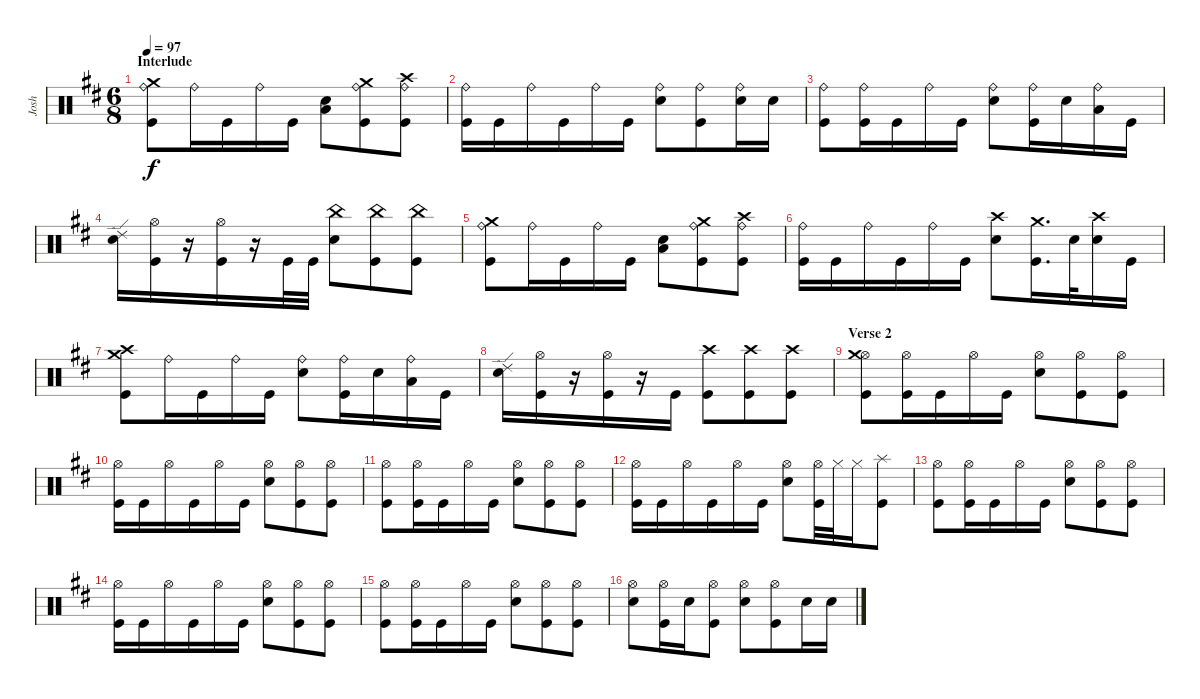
\track ("Josh" "Josh") {instrument percussion}
\staff {score}
\articulation defaults
\ts (6 8)
\section ("" "Interlude")
\tempo 97
\clef neutral
\ks bminor
("Kick (hit)" "Crash medium (hit)" "Ride (bell)").8{dy f} "Ride (bell)".16 "Kick (hit)".16 "Ride (bell)".16 "Kick (hit)".16 ("Snare (hit) 2" "Low Floor Tom (hit)").8 ("Kick (hit)" "Ride (bell)" "Crash medium (hit)").8 ("Kick (hit)" "Ride (bell)" "Crash high (hit)").8 |
("Kick (hit)" "Ride (bell)").16 "Kick (hit)".16 "Ride (bell)".16 "Kick (hit)".16 "Ride (bell)".16 "Kick (hit)".16 ("Snare (hit) 2" "Ride (bell)").8 ("Kick (hit)" "Ride (bell)").8 ("Snare (hit) 2" "Ride (bell)").16 "Snare (hit) 2".16 |
("Kick (hit)" "Ride (bell)").8 ("Kick (hit)" "Ride (bell)").16 "Kick (hit)".16 "Ride (bell)".16 "Kick (hit)".16 ("Snare (hit) 2" "Ride (bell)").8 ("Kick (hit)" "Ride (bell)").16 "Snare (hit) 2".16 ("Ride (bell)" "Low Floor Tom (hit)").16 "Kick (hit)".16 |
("Snare (hit) 2" "Ride (edge) 2").16 ("Kick (hit)" "Hi-Hat (open)").16 r.16 ("Kick (hit)" "Hi-Hat (open)").16 r.16 "Kick (hit)".32 "Kick (hit)".32 ("Snare (hit) 2" "China (hit)").8 ("Kick (hit)" "China (hit)").8 ("Kick (hit)" "China (hit)").8 |
("Kick (hit)" "Crash medium (hit)" "Ride (bell)").8 "Ride (bell)".16 "Kick (hit)".16 "Ride (bell)".16 "Kick (hit)".16 ("Snare (hit) 2" "Low Floor Tom (hit)").8 ("Kick (hit)" "Ride (bell)" "Crash medium (hit)").8 ("Kick (hit)" "Ride (bell)" "Crash high (hit)").8 |
("Kick (hit)" "Ride (bell)").16 "Kick (hit)".16 "Ride (bell)".16 "Kick (hit)".16 "Ride (bell)".16 "Kick (hit)".16 ("Snare (hit) 2" "Crash high (hit)").8 ("Kick (hit)" "Crash medium (hit)").16{d} "Snare (hit) 2".32 ("Snare (hit) 2" "Crash high (hit)").16 "Kick (hit)".16 |
("Kick (hit)" "Crash high (hit)" "Crash medium (hit)").8 "Ride (bell)".16 "Kick (hit)".16 "Ride (bell)".16 "Kick (hit)".16 ("Snare (hit) 2" "Ride (bell)").8 ("Kick (hit)" "Ride (bell)").16 "Snare (hit) 2".16 ("Ride (bell)" "Low Floor Tom (hit)").16 "Kick (hit)".16 |
("Snare (hit) 2" "Ride (edge) 2").16 ("Kick (hit)" "Hi-Hat (open)").16 r.16 ("Kick (hit)" "Hi-Hat (open)").16 r.16 "Kick (hit)".16 ("Kick (hit)" "Crash high (hit)").8 ("Kick (hit)" "Crash high (hit)").8 ("Kick (hit)" "Crash high (hit)").8 |
\section ("" "Verse 2")
("Kick (hit)" "Hi-Hat (open)" "Crash medium (hit)").8 ("Kick (hit)" "Hi-Hat (open)").16 "Kick (hit)".16 "Hi-Hat (open)".16 "Kick (hit)".16 ("Snare (hit) 2" "Hi-Hat (open)").8 ("Kick (hit)" "Hi-Hat (open)").8 ("Kick (hit)" "Hi-Hat (open)").8 |
("Kick (hit)" "Hi-Hat (open)").16 "Kick (hit)".16 "Hi-Hat (open)".16 "Kick (hit)".16 "Hi-Hat (open)".16 "Kick (hit)".16 ("Snare (hit) 2" "Hi-Hat (open)").8 ("Kick (hit)" "Hi-Hat (open)").8 ("Hi-Hat (open)" "Kick (hit)").8 |
("Kick (hit)" "Hi-Hat (open)").8 ("Kick (hit)" "Hi-Hat (open)").16 "Kick (hit)".16 "Hi-Hat (open)".16 "Kick (hit)".16 ("Snare (hit) 2" "Hi-Hat (open)").8 ("Kick (hit)" "Hi-Hat (open)").8 ("Kick (hit)" "Hi-Hat (open)").8 |
("Kick (hit)" "Hi-Hat (open)").16 "Kick (hit)".16 "Hi-Hat (open)".16 "Kick (hit)".16 "Hi-Hat (open)".16 "Kick (hit)".16 ("Hi-Hat (open)" "Snare (hit) 2").8 ("Kick (hit)" "Hi-Hat (open)").32 "Hi-Hat (closed)".32 "Hi-Hat (closed)".16 ("Kick (hit)" "Splash (hit)").8 |
("Kick (hit)" "Hi-Hat (open)").8 ("Kick (hit)" "Hi-Hat (open)").16 "Kick (hit)".16 "Hi-Hat (open)".16 "Kick (hit)".16 ("Snare (hit) 2" "Hi-Hat (open)").8 ("Kick (hit)" "Hi-Hat (open)").8 ("Kick (hit)" "Hi-Hat (open)").8 |
("Kick (hit)" "Hi-Hat (open)").16 "Kick (hit)".16 "Hi-Hat (open)".16 "Kick (hit)".16 "Hi-Hat (open)".16 "Kick (hit)".16 ("Snare (hit) 2" "Hi-Hat (open)").8 ("Kick (hit)" "Hi-Hat (open)").8 ("Hi-Hat (open)" "Kick (hit)").8 |
("Kick (hit)" "Hi-Hat (open)").8 ("Kick (hit)" "Hi-Hat (open)").16 "Kick (hit)".16 "Hi-Hat (open)".16 "Kick (hit)".16 ("Snare (hit) 2" "Hi-Hat (open)").8 ("Kick (hit)" "Hi-Hat (open)").8 ("Kick (hit)" "Hi-Hat (open)").8 |
("Hi-Hat (open)" "Snare (hit) 2").8 ("Hi-Hat (open)" "Kick (hit)").16 "Snare (hit) 2".16 ("Hi-Hat (open)" "Kick (hit)").8 ("Hi-Hat (open)" "Snare (hit) 2").8 ("Kick (hit)" "Hi-Hat (open)").8 "Snare (hit) 2".16 "Snare (hit) 2".16
